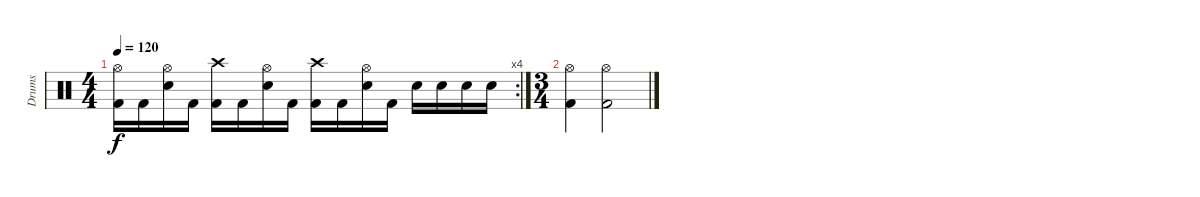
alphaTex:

\track ("Drums" "Drums") {instrument percussion}
\staff {score}
\articulation defaults
\rc 4
\ts (4 4)
\tempo 120
\clef neutral
\ks c
("Hi-Hat (open)" "Kick (hit) 2").16{dy f} "Kick (hit) 2".16 ("Hi-Hat (open)" "Snare (hit) 2").16 "Kick (hit) 2".16 ("Crash high (hit)" "Kick (hit) 2").16 "Kick (hit) 2".16 ("Hi-Hat (open)" "Snare (hit) 2").16 "Kick (hit) 2".16 ("Crash high (hit)" "Kick (hit) 2").16 "Kick (hit) 2".16 ("Hi-Hat (open)" "Snare (hit) 2").16 "Kick (hit) 2".16 "Snare (hit) 2".16 "Snare (hit) 2".16 "Snare (hit) 2".16 "Snare (hit) 2".16 |
\ts (3 4)
("Hi-Hat (open)" "Kick (hit) 2").4 ("Hi-Hat (open)" "Kick (hit) 2").2
